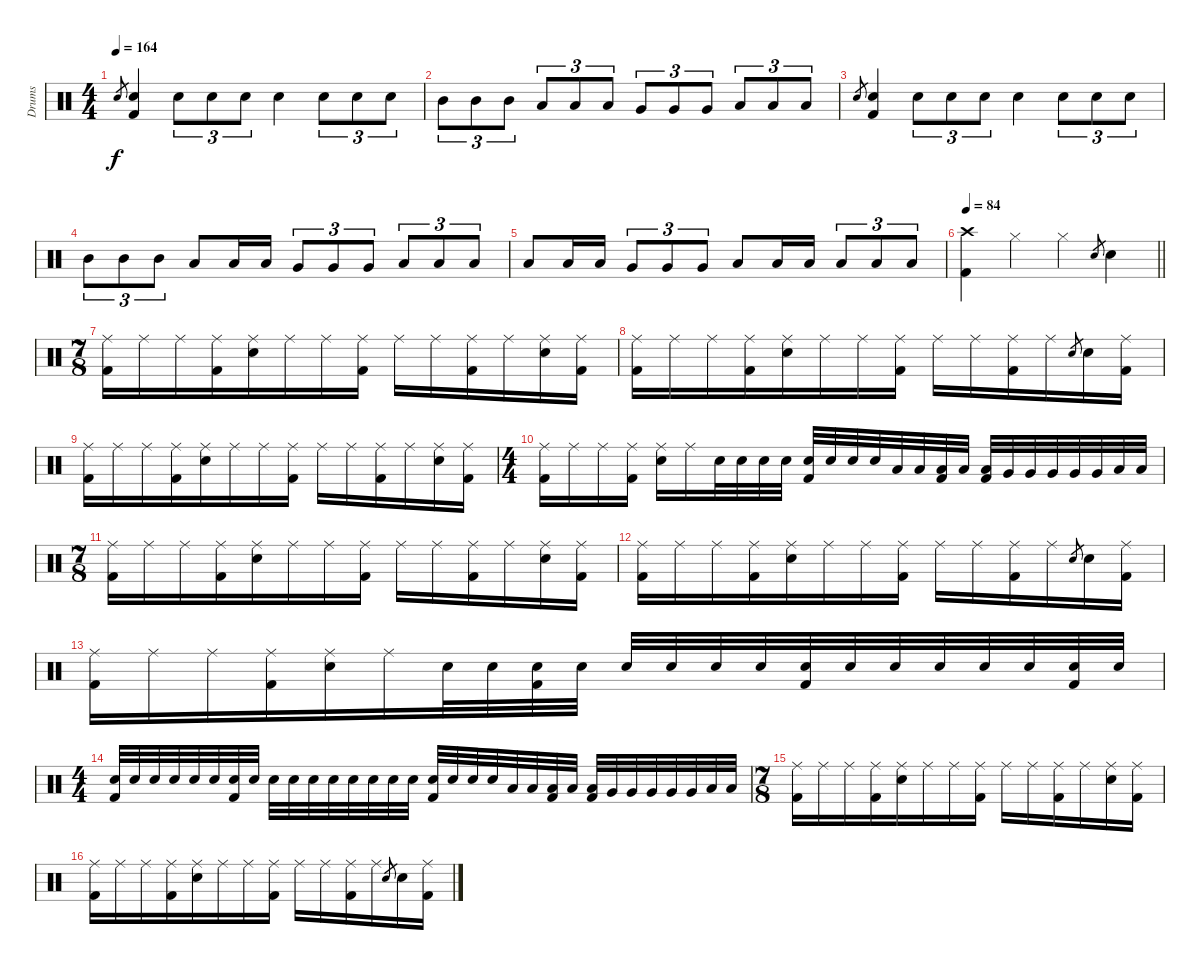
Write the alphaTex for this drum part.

\track ("Drums" "Drums") {instrument percussion}
\staff {score}
\articulation defaults
\ts (4 4)
\tempo 164
\clef neutral
\ks c "Electric Snare (hit)".8{gr dy f}
("Electric Snare (hit)" "Kick (hit) 2").4 "Electric Snare (hit)".8{tu (3 2)} "Electric Snare (hit)".8{tu (3 2)} "Electric Snare (hit)".8{tu (3 2)} "Electric Snare (hit)".4 "Electric Snare (hit)".8{tu (3 2)} "Electric Snare (hit)".8{tu (3 2)} "Electric Snare (hit)".8{tu (3 2)} |
"Mid Tom (hit)".8{tu (3 2)} "Mid Tom (hit)".8{tu (3 2)} "Mid Tom (hit)".8{tu (3 2)} "Low Tom (hit)".8{tu (3 2)} "Low Tom (hit)".8{tu (3 2)} "Low Tom (hit)".8{tu (3 2)} "Very Low Tom (hit)".8{tu (3 2)} "Very Low Tom (hit)".8{tu (3 2)} "Very Low Tom (hit)".8{tu (3 2)} "Low Floor Tom (hit)".8{tu (3 2)} "Low Floor Tom (hit)".8{tu (3 2)} "Low Floor Tom (hit)".8{tu (3 2)} |
"Electric Snare (hit)".8{gr} ("Electric Snare (hit)" "Kick (hit) 2").4 "Electric Snare (hit)".8{tu (3 2)} "Electric Snare (hit)".8{tu (3 2)} "Electric Snare (hit)".8{tu (3 2)} "Electric Snare (hit)".4 "Electric Snare (hit)".8{tu (3 2)} "Electric Snare (hit)".8{tu (3 2)} "Electric Snare (hit)".8{tu (3 2)} |
"Mid Tom (hit)".8{tu (3 2)} "Mid Tom (hit)".8{tu (3 2)} "Mid Tom (hit)".8{tu (3 2)} "Low Tom (hit)".8 "Low Tom (hit)".16 "Low Tom (hit)".16 "Very Low Tom (hit)".8{tu (3 2)} "Very Low Tom (hit)".8{tu (3 2)} "Very Low Tom (hit)".8{tu (3 2)} "Low Floor Tom (hit)".8{tu (3 2)} "Low Floor Tom (hit)".8{tu (3 2)} "Low Floor Tom (hit)".8{tu (3 2)} |
"Low Tom (hit)".8 "Low Tom (hit)".16 "Low Tom (hit)".16 "Very Low Tom (hit)".8{tu (3 2)} "Very Low Tom (hit)".8{tu (3 2)} "Very Low Tom (hit)".8{tu (3 2)} "Low Floor Tom (hit)".8 "Low Floor Tom (hit)".16 "Low Floor Tom (hit)".16 "Low Floor Tom (hit)".8{tu (3 2)} "Low Floor Tom (hit)".8{tu (3 2)} "Low Floor Tom (hit)".8{tu (3 2)} |
\tempo 84
\barLineRight lightlight
("Crash high (hit)" "Kick (hit) 2").4 "Hi-Hat (closed)".4 "Hi-Hat (closed)".4 "Electric Snare (hit)".8{gr} "Electric Snare (hit)".4 |
\ts (7 8)
("Ride (middle)" "Kick (hit) 2").16 "Ride (middle)".16 "Ride (middle)".16 ("Ride (middle)" "Kick (hit) 2").16 ("Ride (middle)" "Electric Snare (hit)").16 "Ride (middle)".16 "Ride (middle)".16 ("Ride (middle)" "Kick (hit) 2").16 "Ride (middle)".16 "Ride (middle)".16 ("Ride (middle)" "Kick (hit) 2").16 "Ride (middle)".16 ("Ride (middle)" "Electric Snare (hit)").16 ("Ride (middle)" "Kick (hit) 2").16 |
("Ride (middle)" "Kick (hit) 2").16 "Ride (middle)".16 "Ride (middle)".16 ("Ride (middle)" "Kick (hit) 2").16 ("Ride (middle)" "Electric Snare (hit)").16 "Ride (middle)".16 "Ride (middle)".16 ("Ride (middle)" "Kick (hit) 2").16 "Ride (middle)".16 "Ride (middle)".16 ("Ride (middle)" "Kick (hit) 2").16 "Ride (middle)".16 "Electric Snare (hit)".8{gr} "Electric Snare (hit)".16 ("Ride (middle)" "Kick (hit) 2").16 |
("Ride (middle)" "Kick (hit) 2").16 "Ride (middle)".16 "Ride (middle)".16 ("Ride (middle)" "Kick (hit) 2").16 ("Ride (middle)" "Electric Snare (hit)").16 "Ride (middle)".16 "Ride (middle)".16 ("Ride (middle)" "Kick (hit) 2").16 "Ride (middle)".16 "Ride (middle)".16 ("Ride (middle)" "Kick (hit) 2").16 "Ride (middle)".16 ("Ride (middle)" "Electric Snare (hit)").16 ("Ride (middle)" "Kick (hit) 2").16 |
\ts (4 4)
("Ride (middle)" "Kick (hit) 2").16 "Ride (middle)".16 "Ride (middle)".16 ("Ride (middle)" "Kick (hit) 2").16 ("Ride (middle)" "Electric Snare (hit)").16 "Ride (middle)".16 "Electric Snare (hit)".32 "Electric Snare (hit)".32 "Electric Snare (hit)".32 "Electric Snare (hit)".32 ("Electric Snare (hit)" "Kick (hit) 2").32 "Electric Snare (hit)".32 "Electric Snare (hit)".32 "Electric Snare (hit)".32 "Low Tom (hit)".32 "Low Tom (hit)".32 ("Low Tom (hit)" "Kick (hit) 2").32 "Low Tom (hit)".32 ("Low Tom (hit)" "Kick (hit) 2").32 "Very Low Tom (hit)".32 "Very Low Tom (hit)".32 "Very Low Tom (hit)".32 "Very Low Tom (hit)".32 "Very Low Tom (hit)".32 "Low Floor Tom (hit)".32 "Low Floor Tom (hit)".32 |
\ts (7 8)
("Ride (middle)" "Kick (hit) 2").16 "Ride (middle)".16 "Ride (middle)".16 ("Ride (middle)" "Kick (hit) 2").16 ("Ride (middle)" "Electric Snare (hit)").16 "Ride (middle)".16 "Ride (middle)".16 ("Ride (middle)" "Kick (hit) 2").16 "Ride (middle)".16 "Ride (middle)".16 ("Ride (middle)" "Kick (hit) 2").16 "Ride (middle)".16 ("Ride (middle)" "Electric Snare (hit)").16 ("Ride (middle)" "Kick (hit) 2").16 |
("Ride (middle)" "Kick (hit) 2").16 "Ride (middle)".16 "Ride (middle)".16 ("Ride (middle)" "Kick (hit) 2").16 ("Ride (middle)" "Electric Snare (hit)").16 "Ride (middle)".16 "Ride (middle)".16 ("Ride (middle)" "Kick (hit) 2").16 "Ride (middle)".16 "Ride (middle)".16 ("Ride (middle)" "Kick (hit) 2").16 "Ride (middle)".16 "Electric Snare (hit)".8{gr} "Electric Snare (hit)".16 ("Ride (middle)" "Kick (hit) 2").16 |
("Ride (middle)" "Kick (hit) 2").16 "Ride (middle)".16 "Ride (middle)".16 ("Ride (middle)" "Kick (hit) 2").16 ("Ride (middle)" "Electric Snare (hit)").16 "Ride (middle)".16 "Electric Snare (hit)".32 "Electric Snare (hit)".32 ("Electric Snare (hit)" "Kick (hit) 2").32 "Electric Snare (hit)".32 "Electric Snare (hit)".32 "Electric Snare (hit)".32 "Electric Snare (hit)".32 "Electric Snare (hit)".32 ("Electric Snare (hit)" "Kick (hit) 2").32 "Electric Snare (hit)".32 "Electric Snare (hit)".32 "Electric Snare (hit)".32 "Electric Snare (hit)".32 "Electric Snare (hit)".32 ("Electric Snare (hit)" "Kick (hit) 2").32 "Electric Snare (hit)".32 |
\ts (4 4)
("Electric Snare (hit)" "Kick (hit) 2").32 "Electric Snare (hit)".32 "Electric Snare (hit)".32 "Electric Snare (hit)".32 "Electric Snare (hit)".32 "Electric Snare (hit)".32 ("Electric Snare (hit)" "Kick (hit) 2").32 "Electric Snare (hit)".32 "Electric Snare (hit)".32 "Electric Snare (hit)".32 "Electric Snare (hit)".32 "Electric Snare (hit)".32 "Electric Snare (hit)".32 "Electric Snare (hit)".32 "Electric Snare (hit)".32 "Electric Snare (hit)".32 ("Electric Snare (hit)" "Kick (hit) 2").32 "Electric Snare (hit)".32 "Electric Snare (hit)".32 "Electric Snare (hit)".32 "Low Tom (hit)".32 "Low Tom (hit)".32 ("Low Tom (hit)" "Kick (hit) 2").32 "Low Tom (hit)".32 ("Low Tom (hit)" "Kick (hit) 2").32 "Very Low Tom (hit)".32 "Very Low Tom (hit)".32 "Very Low Tom (hit)".32 "Very Low Tom (hit)".32 "Very Low Tom (hit)".32 "Low Floor Tom (hit)".32 "Low Floor Tom (hit)".32 |
\ts (7 8)
("Ride (middle)" "Kick (hit) 2").16 "Ride (middle)".16 "Ride (middle)".16 ("Ride (middle)" "Kick (hit) 2").16 ("Ride (middle)" "Electric Snare (hit)").16 "Ride (middle)".16 "Ride (middle)".16 ("Ride (middle)" "Kick (hit) 2").16 "Ride (middle)".16 "Ride (middle)".16 ("Ride (middle)" "Kick (hit) 2").16 "Ride (middle)".16 ("Ride (middle)" "Electric Snare (hit)").16 ("Ride (middle)" "Kick (hit) 2").16 |
("Ride (middle)" "Kick (hit) 2").16 "Ride (middle)".16 "Ride (middle)".16 ("Ride (middle)" "Kick (hit) 2").16 ("Ride (middle)" "Electric Snare (hit)").16 "Ride (middle)".16 "Ride (middle)".16 ("Ride (middle)" "Kick (hit) 2").16 "Ride (middle)".16 "Ride (middle)".16 ("Ride (middle)" "Kick (hit) 2").16 "Ride (middle)".16 "Electric Snare (hit)".8{gr} "Electric Snare (hit)".16 ("Ride (middle)" "Kick (hit) 2").16
